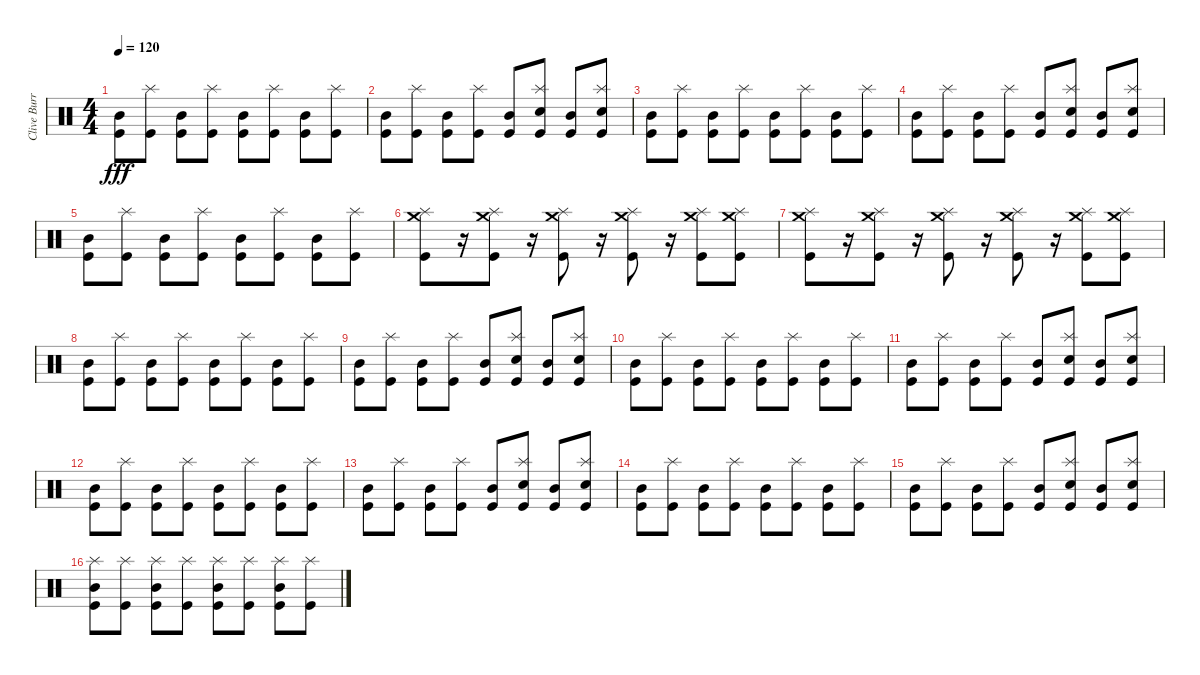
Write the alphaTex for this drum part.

\track ("Clive Burr" "Clive Burr") {instrument percussion}
\staff {score}
\articulation defaults
\ts (4 4)
\tempo 120
\clef neutral
\ks c
("Kick (hit)" "Mid Tom (hit)").8{dy fff} ("Kick (hit)" "Splash (hit)").8 ("Kick (hit)" "Mid Tom (hit)").8 ("Kick (hit)" "Splash (hit)").8 ("Kick (hit)" "Mid Tom (hit)").8 ("Kick (hit)" "Splash (hit)").8 ("Kick (hit)" "Mid Tom (hit)").8 ("Kick (hit)" "Splash (hit)").8 |
("Kick (hit)" "Mid Tom (hit)").8 ("Kick (hit)" "Splash (hit)").8 ("Kick (hit)" "Mid Tom (hit)").8 ("Kick (hit)" "Splash (hit)").8 ("Kick (hit)" "Mid Tom (hit)").8 ("Kick (hit)" "Splash (hit)" "Electric Snare (hit)").8 ("Kick (hit)" "Mid Tom (hit)").8 ("Kick (hit)" "Splash (hit)" "Electric Snare (hit)").8 |
("Kick (hit)" "Mid Tom (hit)").8 ("Kick (hit)" "Splash (hit)").8 ("Kick (hit)" "Mid Tom (hit)").8 ("Kick (hit)" "Splash (hit)").8 ("Kick (hit)" "Mid Tom (hit)").8 ("Kick (hit)" "Splash (hit)").8 ("Kick (hit)" "Mid Tom (hit)").8 ("Kick (hit)" "Splash (hit)").8 |
("Kick (hit)" "Mid Tom (hit)").8 ("Kick (hit)" "Splash (hit)").8 ("Kick (hit)" "Mid Tom (hit)").8 ("Kick (hit)" "Splash (hit)").8 ("Kick (hit)" "Mid Tom (hit)").8 ("Kick (hit)" "Splash (hit)" "Electric Snare (hit)").8 ("Kick (hit)" "Mid Tom (hit)").8 ("Kick (hit)" "Splash (hit)" "Electric Snare (hit)").8 |
("Kick (hit)" "Mid Tom (hit)").8 ("Kick (hit)" "Splash (hit)").8 ("Kick (hit)" "Mid Tom (hit)").8 ("Kick (hit)" "Splash (hit)").8 ("Kick (hit)" "Mid Tom (hit)").8 ("Kick (hit)" "Splash (hit)").8 ("Kick (hit)" "Mid Tom (hit)").8 ("Kick (hit)" "Splash (hit)").8 |
("Crash medium (hit)" "Splash (hit)" "Kick (hit)").8 r.16 ("Crash medium (hit)" "Splash (hit)" "Kick (hit)").8 r.16 ("Crash medium (hit)" "Splash (hit)" "Kick (hit)").8 r.16 ("Crash medium (hit)" "Splash (hit)" "Kick (hit)").8 r.16 ("Crash medium (hit)" "Splash (hit)" "Kick (hit)").8 ("Crash medium (hit)" "Splash (hit)" "Kick (hit)").8 |
("Crash medium (hit)" "Splash (hit)" "Kick (hit)").8 r.16 ("Crash medium (hit)" "Splash (hit)" "Kick (hit)").8 r.16 ("Crash medium (hit)" "Splash (hit)" "Kick (hit)").8 r.16 ("Crash medium (hit)" "Splash (hit)" "Kick (hit)").8 r.16 ("Crash medium (hit)" "Splash (hit)" "Kick (hit)").8 ("Crash medium (hit)" "Splash (hit)" "Kick (hit)").8 |
("Kick (hit)" "Mid Tom (hit)").8 ("Kick (hit)" "Splash (hit)").8 ("Kick (hit)" "Mid Tom (hit)").8 ("Kick (hit)" "Splash (hit)").8 ("Kick (hit)" "Mid Tom (hit)").8 ("Kick (hit)" "Splash (hit)").8 ("Kick (hit)" "Mid Tom (hit)").8 ("Kick (hit)" "Splash (hit)").8 |
("Kick (hit)" "Mid Tom (hit)").8 ("Kick (hit)" "Splash (hit)").8 ("Kick (hit)" "Mid Tom (hit)").8 ("Kick (hit)" "Splash (hit)").8 ("Kick (hit)" "Mid Tom (hit)").8 ("Kick (hit)" "Splash (hit)" "Electric Snare (hit)").8 ("Kick (hit)" "Mid Tom (hit)").8 ("Kick (hit)" "Splash (hit)" "Electric Snare (hit)").8 |
("Kick (hit)" "Mid Tom (hit)").8 ("Kick (hit)" "Splash (hit)").8 ("Kick (hit)" "Mid Tom (hit)").8 ("Kick (hit)" "Splash (hit)").8 ("Kick (hit)" "Mid Tom (hit)").8 ("Kick (hit)" "Splash (hit)").8 ("Kick (hit)" "Mid Tom (hit)").8 ("Kick (hit)" "Splash (hit)").8 |
("Kick (hit)" "Mid Tom (hit)").8 ("Kick (hit)" "Splash (hit)").8 ("Kick (hit)" "Mid Tom (hit)").8 ("Kick (hit)" "Splash (hit)").8 ("Kick (hit)" "Mid Tom (hit)").8 ("Kick (hit)" "Splash (hit)" "Electric Snare (hit)").8 ("Kick (hit)" "Mid Tom (hit)").8 ("Kick (hit)" "Splash (hit)" "Electric Snare (hit)").8 |
("Kick (hit)" "Mid Tom (hit)").8 ("Kick (hit)" "Splash (hit)").8 ("Kick (hit)" "Mid Tom (hit)").8 ("Kick (hit)" "Splash (hit)").8 ("Kick (hit)" "Mid Tom (hit)").8 ("Kick (hit)" "Splash (hit)").8 ("Kick (hit)" "Mid Tom (hit)").8 ("Kick (hit)" "Splash (hit)").8 |
("Kick (hit)" "Mid Tom (hit)").8 ("Kick (hit)" "Splash (hit)").8 ("Kick (hit)" "Mid Tom (hit)").8 ("Kick (hit)" "Splash (hit)").8 ("Kick (hit)" "Mid Tom (hit)").8 ("Kick (hit)" "Splash (hit)" "Electric Snare (hit)").8 ("Kick (hit)" "Mid Tom (hit)").8 ("Kick (hit)" "Splash (hit)" "Electric Snare (hit)").8 |
("Kick (hit)" "Mid Tom (hit)").8 ("Kick (hit)" "Splash (hit)").8 ("Kick (hit)" "Mid Tom (hit)").8 ("Kick (hit)" "Splash (hit)").8 ("Kick (hit)" "Mid Tom (hit)").8 ("Kick (hit)" "Splash (hit)").8 ("Kick (hit)" "Mid Tom (hit)").8 ("Kick (hit)" "Splash (hit)").8 |
("Kick (hit)" "Mid Tom (hit)").8 ("Kick (hit)" "Splash (hit)").8 ("Kick (hit)" "Mid Tom (hit)").8 ("Kick (hit)" "Splash (hit)").8 ("Kick (hit)" "Mid Tom (hit)").8 ("Kick (hit)" "Splash (hit)" "Electric Snare (hit)").8 ("Kick (hit)" "Mid Tom (hit)").8 ("Kick (hit)" "Splash (hit)" "Electric Snare (hit)").8 |
("Kick (hit)" "Mid Tom (hit)" "Splash (hit)").8 ("Kick (hit)" "Splash (hit)").8 ("Kick (hit)" "Mid Tom (hit)" "Splash (hit)").8 ("Kick (hit)" "Splash (hit)").8 ("Kick (hit)" "Mid Tom (hit)" "Splash (hit)").8 ("Kick (hit)" "Splash (hit)").8 ("Kick (hit)" "Mid Tom (hit)" "Splash (hit)").8 ("Kick (hit)" "Splash (hit)").8
